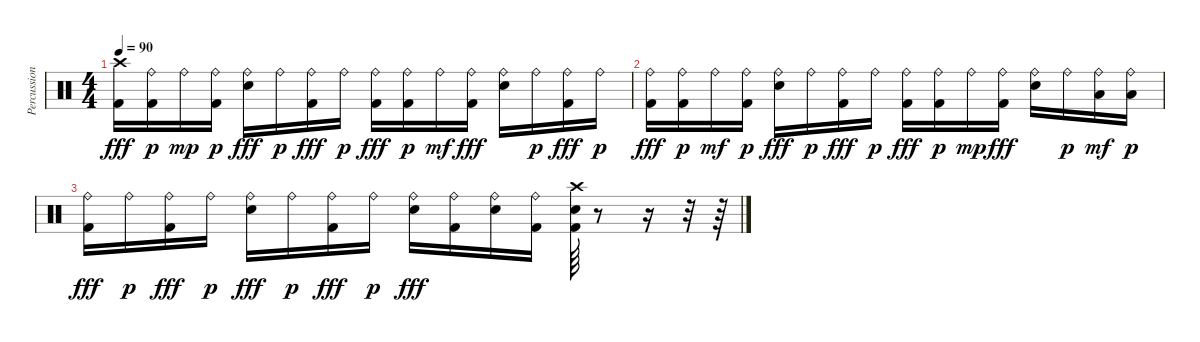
\track ("Percussion" "Percussion") {instrument percussion}
\staff {score}
\articulation defaults
\ts (4 4)
\tempo 90
\clef neutral
\ks c
("Crash high (hit)" "Kick (hit) 2").16{dy fff} ("Ride (bell)" "Kick (hit) 2").16{dy p} "Ride (bell)".16{dy mp} ("Ride (bell)" "Kick (hit) 2").16{dy p} ("Ride (bell)" "Electric Snare (hit)").16{dy fff} "Ride (bell)".16{dy p} ("Ride (bell)" "Kick (hit) 2").16{dy fff} "Ride (bell)".16{dy p} ("Ride (bell)" "Kick (hit) 2").16{dy fff} ("Ride (bell)" "Kick (hit) 2").16{dy p} "Ride (bell)".16{dy mf} ("Ride (bell)" "Kick (hit) 2").16{dy fff} ("Ride (bell)" "Electric Snare (hit)").16 "Ride (bell)".16{dy p} ("Ride (bell)" "Kick (hit) 2").16{dy fff} "Ride (bell)".16{dy p} |
("Ride (bell)" "Kick (hit) 2").16{dy fff} ("Ride (bell)" "Kick (hit) 2").16{dy p} "Ride (bell)".16{dy mf} ("Ride (bell)" "Kick (hit) 2").16{dy p} ("Ride (bell)" "Electric Snare (hit)").16{dy fff} "Ride (bell)".16{dy p} ("Ride (bell)" "Kick (hit) 2").16{dy fff} "Ride (bell)".16{dy p} ("Ride (bell)" "Kick (hit) 2").16{dy fff} ("Ride (bell)" "Kick (hit) 2").16{dy p} "Ride (bell)".16{dy mp} ("Ride (bell)" "Kick (hit) 2").16{dy fff} ("Ride (bell)" "Electric Snare (hit)").16 "Ride (bell)".16{dy p} ("Ride (bell)" "Low Tom (hit)").16{dy mf} ("Ride (bell)" "Low Tom (hit)").16{dy p} |
("Ride (bell)" "Kick (hit) 2").16{dy fff} "Ride (bell)".16{dy p} ("Ride (bell)" "Kick (hit) 2").16{dy fff} "Ride (bell)".16{dy p} ("Ride (bell)" "Electric Snare (hit)").16{dy fff} "Ride (bell)".16{dy p} ("Ride (bell)" "Kick (hit) 2").16{dy fff} "Ride (bell)".16{dy p} ("Ride (bell)" "Electric Snare (hit)").16{dy fff} ("Ride (bell)" "Kick (hit) 2").16 ("Ride (bell)" "Electric Snare (hit)").16 ("Ride (bell)" "Kick (hit) 2").16 ("Electric Snare (hit)" "Crash high (hit)" "Kick (hit) 2").64 r.8 r.16 r.32 r.64
